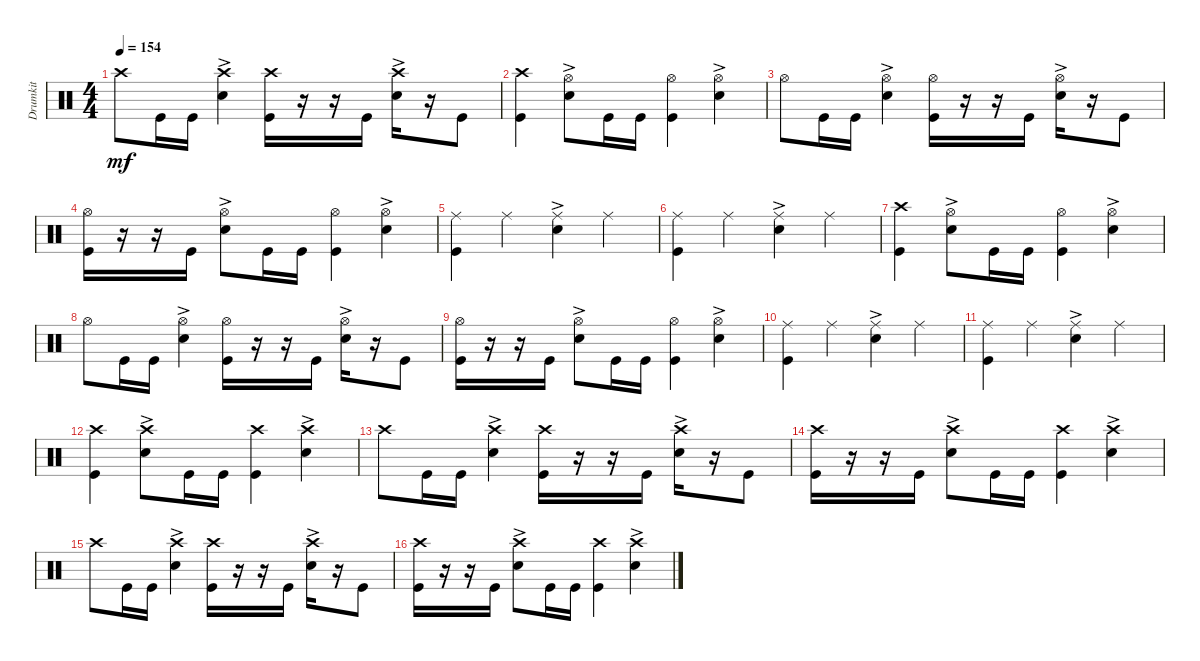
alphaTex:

\track ("Drumkit" "Drumkit") {instrument percussion}
\staff {score}
\articulation defaults
\ts (4 4)
\tempo 154
\clef neutral
\ks c "Crash high (hit)".8{dy mf} "Kick (hit)".16 "Kick (hit)".16
("Snare (hit) 2"{ac} "Crash high (hit)").4 ("Kick (hit)" "Crash high (hit)").16 r.16 r.16 "Kick (hit)".16 ("Snare (hit) 2"{ac} "Crash high (hit)").16 r.16 "Kick (hit)".8 |
("Crash high (hit)" "Kick (hit)").4 ("Snare (hit) 2"{ac} "Hi-Hat (open)").8 "Kick (hit)".16 "Kick (hit)".16 ("Kick (hit)" "Hi-Hat (open)").4 ("Hi-Hat (open)" "Snare (hit) 2"{ac}).4 |
"Hi-Hat (open)".8 "Kick (hit)".16 "Kick (hit)".16 ("Snare (hit) 2"{ac} "Hi-Hat (open)").4 ("Hi-Hat (open)" "Kick (hit)").16 r.16 r.16 "Kick (hit)".16 ("Snare (hit) 2"{ac} "Hi-Hat (open)").16 r.16 "Kick (hit)".8 |
("Kick (hit)" "Hi-Hat (open)").16 r.16 r.16 "Kick (hit)".16 ("Snare (hit) 2"{ac} "Hi-Hat (open)").8 "Kick (hit)".16 "Kick (hit)".16 ("Kick (hit)" "Hi-Hat (open)").4 ("Hi-Hat (open)" "Snare (hit) 2"{ac}).4 |
("Ride (middle)" "Kick (hit)").4 "Ride (middle)".4 ("Ride (middle)" "Snare (hit) 2"{ac}).4 "Ride (middle)".4 |
("Ride (middle)" "Kick (hit)").4 "Ride (middle)".4 ("Ride (middle)" "Snare (hit) 2"{ac}).4 "Ride (middle)".4 |
("Crash high (hit)" "Kick (hit)").4 ("Snare (hit) 2"{ac} "Hi-Hat (open)").8 "Kick (hit)".16 "Kick (hit)".16 ("Kick (hit)" "Hi-Hat (open)").4 ("Hi-Hat (open)" "Snare (hit) 2"{ac}).4 |
"Hi-Hat (open)".8 "Kick (hit)".16 "Kick (hit)".16 ("Snare (hit) 2"{ac} "Hi-Hat (open)").4 ("Hi-Hat (open)" "Kick (hit)").16 r.16 r.16 "Kick (hit)".16 ("Snare (hit) 2"{ac} "Hi-Hat (open)").16 r.16 "Kick (hit)".8 |
("Kick (hit)" "Hi-Hat (open)").16 r.16 r.16 "Kick (hit)".16 ("Snare (hit) 2"{ac} "Hi-Hat (open)").8 "Kick (hit)".16 "Kick (hit)".16 ("Kick (hit)" "Hi-Hat (open)").4 ("Hi-Hat (open)" "Snare (hit) 2"{ac}).4 |
("Ride (middle)" "Kick (hit)").4 "Ride (middle)".4 ("Ride (middle)" "Snare (hit) 2"{ac}).4 "Ride (middle)".4 |
("Ride (middle)" "Kick (hit)").4 "Ride (middle)".4 ("Ride (middle)" "Snare (hit) 2"{ac}).4 "Ride (middle)".4 |
("Crash high (hit)" "Kick (hit)").4 ("Snare (hit) 2"{ac} "Crash high (hit)").8 "Kick (hit)".16 "Kick (hit)".16 ("Kick (hit)" "Crash high (hit)").4 ("Snare (hit) 2"{ac} "Crash high (hit)").4 |
"Crash high (hit)".8 "Kick (hit)".16 "Kick (hit)".16 ("Snare (hit) 2"{ac} "Crash high (hit)").4 ("Kick (hit)" "Crash high (hit)").16 r.16 r.16 "Kick (hit)".16 ("Snare (hit) 2"{ac} "Crash high (hit)").16 r.16 "Kick (hit)".8 |
("Kick (hit)" "Crash high (hit)").16 r.16 r.16 "Kick (hit)".16 ("Snare (hit) 2"{ac} "Crash high (hit)").8 "Kick (hit)".16 "Kick (hit)".16 ("Kick (hit)" "Crash high (hit)").4 ("Snare (hit) 2"{ac} "Crash high (hit)").4 |
"Crash high (hit)".8 "Kick (hit)".16 "Kick (hit)".16 ("Snare (hit) 2"{ac} "Crash high (hit)").4 ("Kick (hit)" "Crash high (hit)").16 r.16 r.16 "Kick (hit)".16 ("Snare (hit) 2"{ac} "Crash high (hit)").16 r.16 "Kick (hit)".8 |
("Kick (hit)" "Crash high (hit)").16 r.16 r.16 "Kick (hit)".16 ("Snare (hit) 2"{ac} "Crash high (hit)").8 "Kick (hit)".16 "Kick (hit)".16 ("Kick (hit)" "Crash high (hit)").4 ("Snare (hit) 2"{ac} "Crash high (hit)").4
